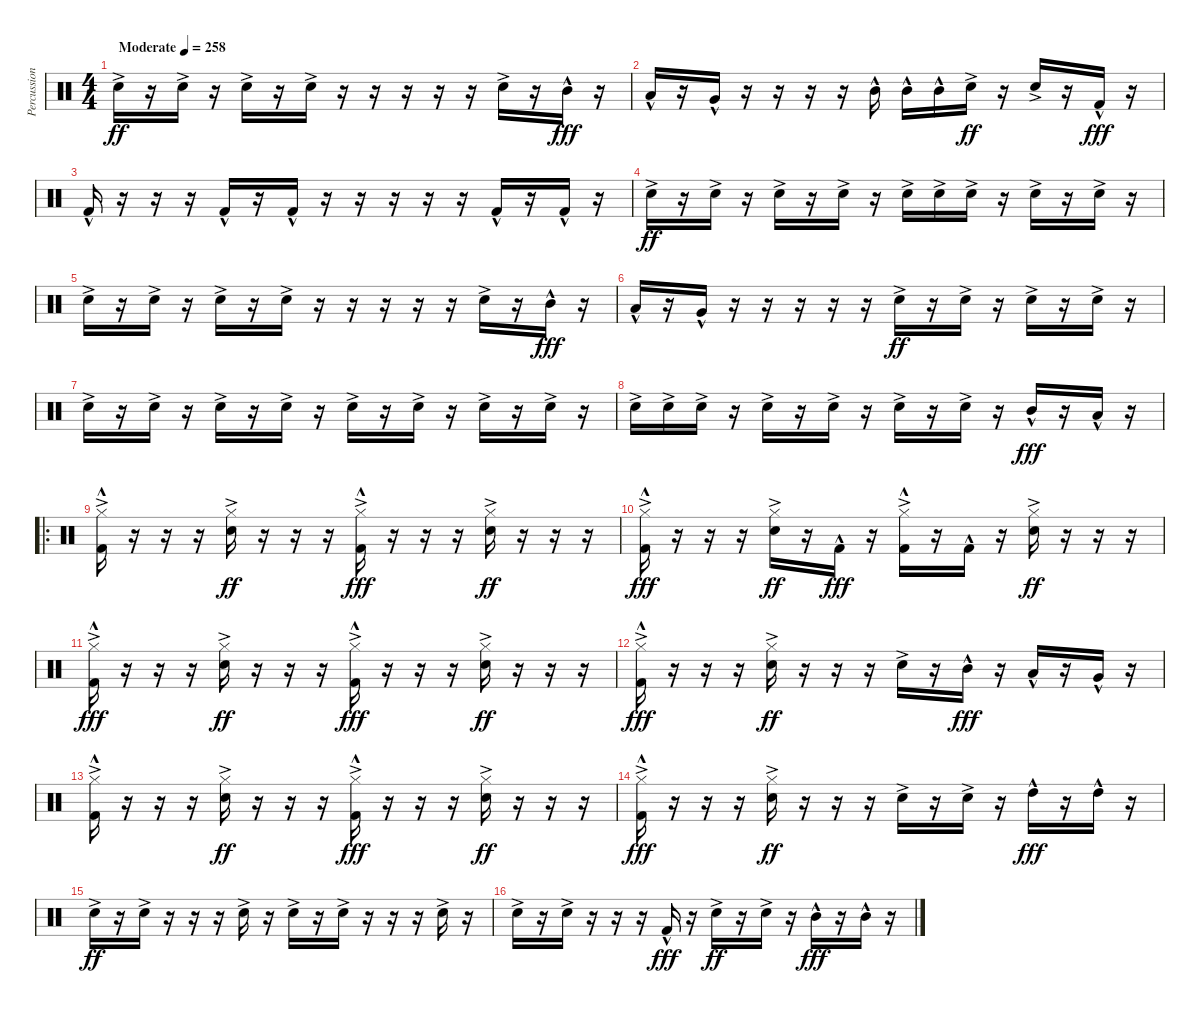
\track ("Percussion" "Percussion") {instrument percussion}
\staff {score}
\articulation defaults
\ts (4 4)
\tempo (258 "Moderate")
\clef neutral
\ks c "Snare (hit) 2"{ac}.16{dy ff}
r.16 "Snare (hit) 2"{ac}.16 r.16 "Snare (hit) 2"{ac}.16 r.16 "Snare (hit) 2"{ac}.16 r.16 r.16 r.16 r.16 r.16 "Snare (hit) 2"{ac}.16 r.16 "Mid Tom (hit)"{hac}.16{dy fff} r.16 |
"Low Tom (hit)"{hac}.16 r.16 "Very Low Tom (hit)"{hac}.16 r.16 r.16 r.16 r.16 "Mid Tom (hit)"{hac}.16 "Mid Tom (hit)"{hac}.16 "Mid Tom (hit)"{hac}.16 "Snare (hit) 2"{ac}.16{dy ff} r.16 "Snare (hit) 2"{ac}.16 r.16 "Kick (hit) 2"{hac}.16{dy fff} r.16 |
"Kick (hit) 2"{hac}.16 r.16 r.16 r.16 "Kick (hit) 2"{hac}.16 r.16 "Kick (hit) 2"{hac}.16 r.16 r.16 r.16 r.16 r.16 "Kick (hit) 2"{hac}.16 r.16 "Kick (hit) 2"{hac}.16 r.16 |
"Snare (hit) 2"{ac}.16{dy ff} r.16 "Snare (hit) 2"{ac}.16 r.16 "Snare (hit) 2"{ac}.16 r.16 "Snare (hit) 2"{ac}.16 r.16 "Snare (hit) 2"{ac}.16 "Snare (hit) 2"{ac}.16 "Snare (hit) 2"{ac}.16 r.16 "Snare (hit) 2"{ac}.16 r.16 "Snare (hit) 2"{ac}.16 r.16 |
"Snare (hit) 2"{ac}.16 r.16 "Snare (hit) 2"{ac}.16 r.16 "Snare (hit) 2"{ac}.16 r.16 "Snare (hit) 2"{ac}.16 r.16 r.16 r.16 r.16 r.16 "Snare (hit) 2"{ac}.16 r.16 "Mid Tom (hit)"{hac}.16{dy fff} r.16 |
"Low Tom (hit)"{hac}.16 r.16 "Very Low Tom (hit)"{hac}.16 r.16 r.16 r.16 r.16 r.16 "Snare (hit) 2"{ac}.16{dy ff} r.16 "Snare (hit) 2"{ac}.16 r.16 "Snare (hit) 2"{ac}.16 r.16 "Snare (hit) 2"{ac}.16 r.16 |
"Snare (hit) 2"{ac}.16 r.16 "Snare (hit) 2"{ac}.16 r.16 "Snare (hit) 2"{ac}.16 r.16 "Snare (hit) 2"{ac}.16 r.16 "Snare (hit) 2"{ac}.16 r.16 "Snare (hit) 2"{ac}.16 r.16 "Snare (hit) 2"{ac}.16 r.16 "Snare (hit) 2"{ac}.16 r.16 |
"Snare (hit) 2"{ac}.16 "Snare (hit) 2"{ac}.16 "Snare (hit) 2"{ac}.16 r.16 "Snare (hit) 2"{ac}.16 r.16 "Snare (hit) 2"{ac}.16 r.16 "Snare (hit) 2"{ac}.16 r.16 "Snare (hit) 2"{ac}.16 r.16 "Mid Tom (hit)"{hac}.16{dy fff} r.16 "Low Tom (hit)"{hac}.16 r.16 |
\ro
("Hi-Hat (closed)"{ac} "Kick (hit) 2"{hac}).16 r.16 r.16 r.16 ("Hi-Hat (closed)"{ac} "Snare (hit) 2"{ac}).16{dy ff} r.16 r.16 r.16 ("Hi-Hat (closed)"{ac} "Kick (hit) 2"{hac}).16{dy fff} r.16 r.16 r.16 ("Hi-Hat (closed)"{ac} "Snare (hit) 2"{ac}).16{dy ff} r.16 r.16 r.16 |
("Hi-Hat (closed)"{ac} "Kick (hit) 2"{hac}).16{dy fff} r.16 r.16 r.16 ("Hi-Hat (closed)"{ac} "Snare (hit) 2"{ac}).16{dy ff} r.16 "Kick (hit) 2"{hac}.16{dy fff} r.16 ("Hi-Hat (closed)"{ac} "Kick (hit) 2"{hac}).16 r.16 "Kick (hit) 2"{hac}.16 r.16 ("Hi-Hat (closed)"{ac} "Snare (hit) 2"{ac}).16{dy ff} r.16 r.16 r.16 |
("Hi-Hat (closed)"{ac} "Kick (hit) 2"{hac}).16{dy fff} r.16 r.16 r.16 ("Hi-Hat (closed)"{ac} "Snare (hit) 2"{ac}).16{dy ff} r.16 r.16 r.16 ("Hi-Hat (closed)"{ac} "Kick (hit) 2"{hac}).16{dy fff} r.16 r.16 r.16 ("Hi-Hat (closed)"{ac} "Snare (hit) 2"{ac}).16{dy ff} r.16 r.16 r.16 |
("Hi-Hat (closed)"{ac} "Kick (hit) 2"{hac}).16{dy fff} r.16 r.16 r.16 ("Hi-Hat (closed)"{ac} "Snare (hit) 2"{ac}).16{dy ff} r.16 r.16 r.16 "Snare (hit) 2"{ac}.16 r.16 "Mid Tom (hit)"{hac}.16{dy fff} r.16 "Low Tom (hit)"{hac}.16 r.16 "Very Low Tom (hit)"{hac}.16 r.16 |
("Hi-Hat (closed)"{ac} "Kick (hit) 2"{hac}).16 r.16 r.16 r.16 ("Hi-Hat (closed)"{ac} "Snare (hit) 2"{ac}).16{dy ff} r.16 r.16 r.16 ("Hi-Hat (closed)"{ac} "Kick (hit) 2"{hac}).16{dy fff} r.16 r.16 r.16 ("Hi-Hat (closed)"{ac} "Snare (hit) 2"{ac}).16{dy ff} r.16 r.16 r.16 |
("Hi-Hat (closed)"{ac} "Kick (hit) 2"{hac}).16{dy fff} r.16 r.16 r.16 ("Hi-Hat (closed)"{ac} "Snare (hit) 2"{ac}).16{dy ff} r.16 r.16 r.16 "Snare (hit) 2"{ac}.16 r.16 "Snare (hit) 2"{ac}.16 r.16 "High Tom (hit)"{hac}.16{dy fff} r.16 "High Tom (hit)"{hac}.16 r.16 |
"Snare (hit) 2"{ac}.16{dy ff} r.16 "Snare (hit) 2"{ac}.16 r.16 r.16 r.16 "Snare (hit) 2"{ac}.16 r.16 "Snare (hit) 2"{ac}.16 r.16 "Snare (hit) 2"{ac}.16 r.16 r.16 r.16 "Snare (hit) 2"{ac}.16 r.16 |
"Snare (hit) 2"{ac}.16 r.16 "Snare (hit) 2"{ac}.16 r.16 r.16 r.16 "Kick (hit) 2"{hac}.16{dy fff} r.16 "Snare (hit) 2"{ac}.16{dy ff} r.16 "Snare (hit) 2"{ac}.16 r.16 "Mid Tom (hit)"{hac}.16{dy fff} r.16 "Mid Tom (hit)"{hac}.16 r.16
